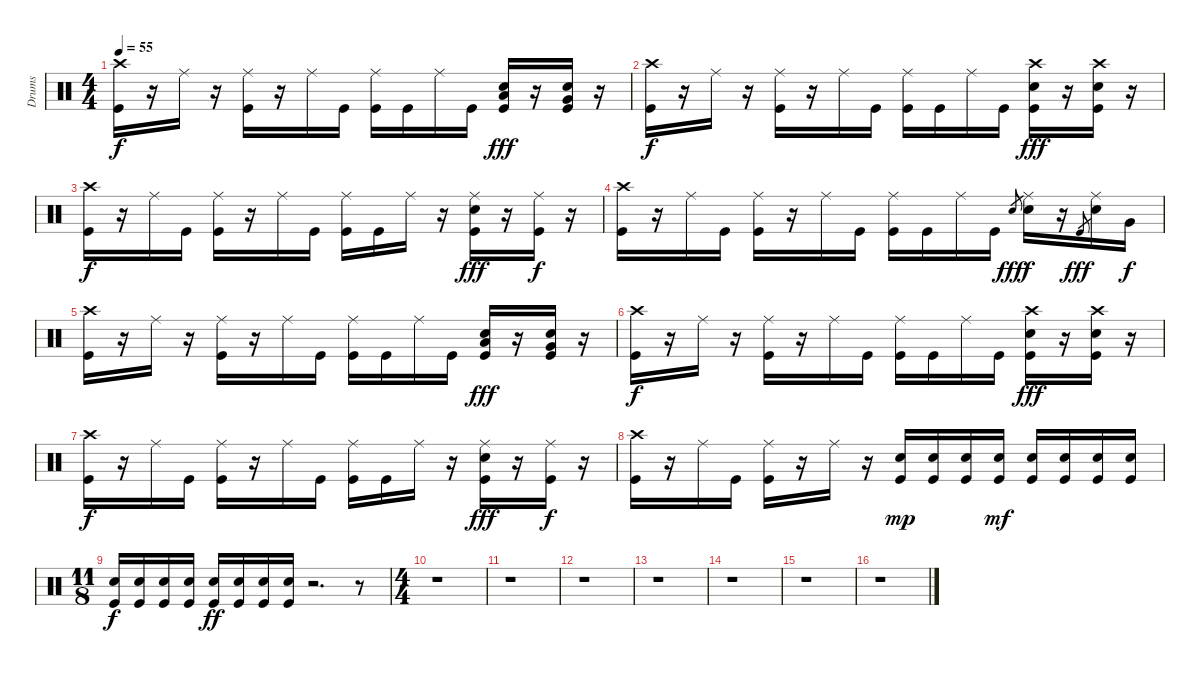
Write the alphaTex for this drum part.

\track ("Drums" "Drums") {instrument percussion}
\staff {score}
\articulation defaults
\ts (4 4)
\tempo 55
\clef neutral
\ks c
("Crash high (hit)" "Kick (hit)").16{dy f} r.16 "Ride (middle)".16 r.16 ("Ride (middle)" "Kick (hit)").16 r.16 "Ride (middle)".16 "Kick (hit)".16 ("Ride (middle)" "Kick (hit)").16 "Kick (hit)".16 "Ride (middle)".16 "Kick (hit)".16 ("Snare (hit) 2" "Low Tom (hit)" "Kick (hit)").16{dy fff} r.16 ("Snare (hit) 2" "Very Low Tom (hit)" "Kick (hit)").16 r.16 |
("Crash high (hit)" "Kick (hit)").16{dy f} r.16 "Ride (middle)".16 r.16 ("Ride (middle)" "Kick (hit)").16 r.16 "Ride (middle)".16 "Kick (hit)".16 ("Ride (middle)" "Kick (hit)").16 "Kick (hit)".16 "Ride (middle)".16 "Kick (hit)".16 ("Crash high (hit)" "Snare (hit) 2" "Kick (hit)").16{dy fff} r.16 ("Crash high (hit)" "Snare (hit) 2" "Kick (hit)").16 r.16 |
("Crash high (hit)" "Kick (hit)").16{dy f} r.16 "Ride (middle)".16 "Kick (hit)".16 ("Ride (middle)" "Kick (hit)").16 r.16 "Ride (middle)".16 "Kick (hit)".16 ("Ride (middle)" "Kick (hit)").16 "Kick (hit)".16 "Ride (middle)".16 r.16 ("Ride (middle)" "Snare (hit) 2" "Kick (hit)").16{dy fff} r.16 ("Ride (middle)" "Kick (hit)").16{dy f} r.16 |
("Crash high (hit)" "Kick (hit)").16 r.16 "Ride (middle)".16 "Kick (hit)".16 ("Ride (middle)" "Kick (hit)").16 r.16 "Ride (middle)".16 "Kick (hit)".16 ("Ride (middle)" "Kick (hit)").16 "Kick (hit)".16 "Ride (middle)".16 "Kick (hit)".16 "Snare (hit) 2".8{gr dy fff} ("Ride (middle)" "Snare (hit) 2").16{dy f} r.16 "Kick (hit)".8{gr dy fff} ("Ride (middle)" "Snare (hit) 2").16 "Very Low Tom (hit)".16{dy f} |
("Crash high (hit)" "Kick (hit)").16 r.16 "Ride (middle)".16 r.16 ("Ride (middle)" "Kick (hit)").16 r.16 "Ride (middle)".16 "Kick (hit)".16 ("Ride (middle)" "Kick (hit)").16 "Kick (hit)".16 "Ride (middle)".16 "Kick (hit)".16 ("Snare (hit) 2" "Low Tom (hit)" "Kick (hit)").16{dy fff} r.16 ("Snare (hit) 2" "Very Low Tom (hit)" "Kick (hit)").16 r.16 |
("Crash high (hit)" "Kick (hit)").16{dy f} r.16 "Ride (middle)".16 r.16 ("Ride (middle)" "Kick (hit)").16 r.16 "Ride (middle)".16 "Kick (hit)".16 ("Ride (middle)" "Kick (hit)").16 "Kick (hit)".16 "Ride (middle)".16 "Kick (hit)".16 ("Crash high (hit)" "Snare (hit) 2" "Kick (hit)").16{dy fff} r.16 ("Crash high (hit)" "Snare (hit) 2" "Kick (hit)").16 r.16 |
("Crash high (hit)" "Kick (hit)").16{dy f} r.16 "Ride (middle)".16 "Kick (hit)".16 ("Ride (middle)" "Kick (hit)").16 r.16 "Ride (middle)".16 "Kick (hit)".16 ("Ride (middle)" "Kick (hit)").16 "Kick (hit)".16 "Ride (middle)".16 r.16 ("Ride (middle)" "Snare (hit) 2" "Kick (hit)").16{dy fff} r.16 ("Ride (middle)" "Kick (hit)").16{dy f} r.16 |
("Crash high (hit)" "Kick (hit)").16 r.16 "Ride (middle)".16 "Kick (hit)".16 ("Ride (middle)" "Kick (hit)").16 r.16 "Ride (middle)".16 r.16 ("Snare (hit) 2" "Kick (hit)").16{dy mp} ("Snare (hit) 2" "Kick (hit)").16 ("Snare (hit) 2" "Kick (hit)").16 ("Snare (hit) 2" "Kick (hit)").16{dy mf} ("Snare (hit) 2" "Kick (hit)").16 ("Snare (hit) 2" "Kick (hit)").16 ("Snare (hit) 2" "Kick (hit)").16 ("Snare (hit) 2" "Kick (hit)").16 |
\ts (11 8)
("Snare (hit) 2" "Kick (hit)").16{dy f} ("Snare (hit) 2" "Kick (hit)").16 ("Snare (hit) 2" "Kick (hit)").16 ("Snare (hit) 2" "Kick (hit)").16 ("Snare (hit) 2" "Kick (hit)").16{dy ff} ("Snare (hit) 2" "Kick (hit)").16 ("Snare (hit) 2" "Kick (hit)").16 ("Snare (hit) 2" "Kick (hit)").16 r.2{d} r.8 |
\ts (4 4)
r.1 |
r.1 |
r.1 |
r.1 |
r.1 |
r.1 |
r.1
